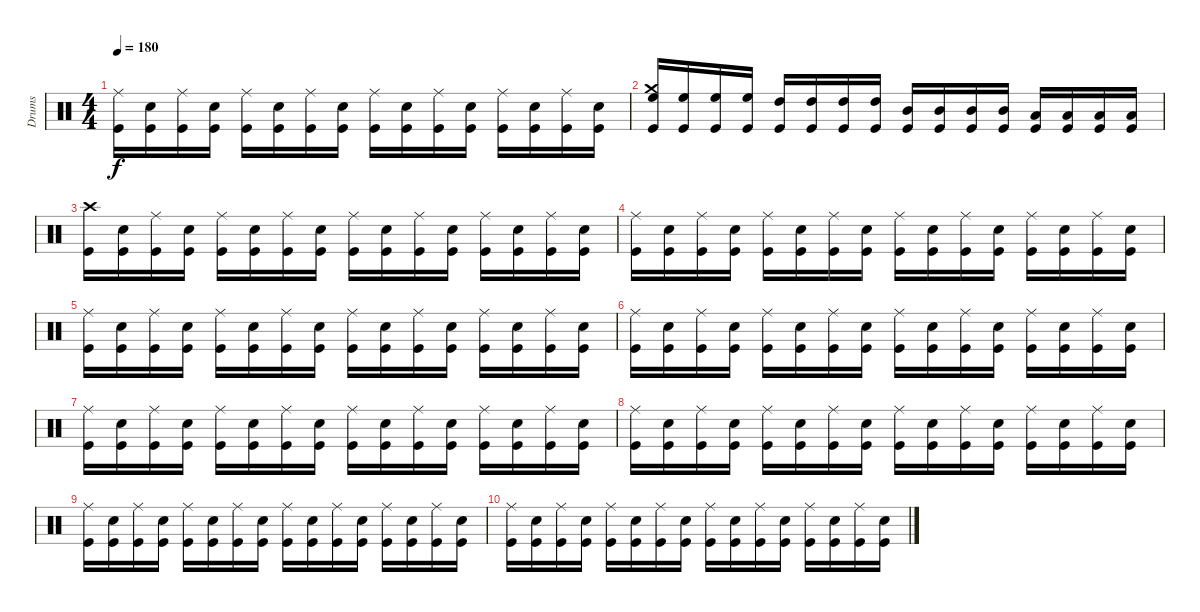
\track ("Drums" "Drums") {instrument percussion}
\staff {score}
\articulation defaults
\ts (4 4)
\tempo 180
\clef neutral
\ks c
("Ride (middle)" "Kick (hit)").16{dy f} ("Snare (hit) 2" "Kick (hit)").16 ("Ride (middle)" "Kick (hit)").16 ("Snare (hit) 2" "Kick (hit)").16 ("Ride (middle)" "Kick (hit)").16 ("Snare (hit) 2" "Kick (hit)").16 ("Ride (middle)" "Kick (hit)").16 ("Snare (hit) 2" "Kick (hit)").16 ("Ride (middle)" "Kick (hit)").16 ("Snare (hit) 2" "Kick (hit)").16 ("Ride (middle)" "Kick (hit)").16 ("Snare (hit) 2" "Kick (hit)").16 ("Ride (middle)" "Kick (hit)").16 ("Snare (hit) 2" "Kick (hit)").16 ("Ride (middle)" "Kick (hit)").16 ("Snare (hit) 2" "Kick (hit)").16 |
("Crash medium (hit)" "High Floor Tom (hit)" "Kick (hit)").16 ("High Floor Tom (hit)" "Kick (hit)").16 ("High Floor Tom (hit)" "Kick (hit)").16 ("High Floor Tom (hit)" "Kick (hit)").16 ("High Tom (hit)" "Kick (hit)").16 ("High Tom (hit)" "Kick (hit)").16 ("High Tom (hit)" "Kick (hit)").16 ("High Tom (hit)" "Kick (hit)").16 ("Mid Tom (hit)" "Kick (hit)").16 ("Mid Tom (hit)" "Kick (hit)").16 ("Mid Tom (hit)" "Kick (hit)").16 ("Mid Tom (hit)" "Kick (hit)").16 ("Low Tom (hit)" "Kick (hit)").16 ("Low Tom (hit)" "Kick (hit)").16 ("Low Tom (hit)" "Kick (hit)").16 ("Low Tom (hit)" "Kick (hit)").16 |
("Crash high (hit)" "Kick (hit)").16 ("Snare (hit) 2" "Kick (hit)").16 ("Ride (middle)" "Kick (hit)").16 ("Snare (hit) 2" "Kick (hit)").16 ("Ride (middle)" "Kick (hit)").16 ("Snare (hit) 2" "Kick (hit)").16 ("Ride (middle)" "Kick (hit)").16 ("Snare (hit) 2" "Kick (hit)").16 ("Ride (middle)" "Kick (hit)").16 ("Snare (hit) 2" "Kick (hit)").16 ("Ride (middle)" "Kick (hit)").16 ("Snare (hit) 2" "Kick (hit)").16 ("Ride (middle)" "Kick (hit)").16 ("Snare (hit) 2" "Kick (hit)").16 ("Ride (middle)" "Kick (hit)").16 ("Snare (hit) 2" "Kick (hit)").16 |
("Ride (middle)" "Kick (hit)").16 ("Snare (hit) 2" "Kick (hit)").16 ("Ride (middle)" "Kick (hit)").16 ("Snare (hit) 2" "Kick (hit)").16 ("Ride (middle)" "Kick (hit)").16 ("Snare (hit) 2" "Kick (hit)").16 ("Ride (middle)" "Kick (hit)").16 ("Snare (hit) 2" "Kick (hit)").16 ("Ride (middle)" "Kick (hit)").16 ("Snare (hit) 2" "Kick (hit)").16 ("Ride (middle)" "Kick (hit)").16 ("Snare (hit) 2" "Kick (hit)").16 ("Ride (middle)" "Kick (hit)").16 ("Snare (hit) 2" "Kick (hit)").16 ("Ride (middle)" "Kick (hit)").16 ("Snare (hit) 2" "Kick (hit)").16 |
("Ride (middle)" "Kick (hit)").16 ("Snare (hit) 2" "Kick (hit)").16 ("Ride (middle)" "Kick (hit)").16 ("Snare (hit) 2" "Kick (hit)").16 ("Ride (middle)" "Kick (hit)").16 ("Snare (hit) 2" "Kick (hit)").16 ("Ride (middle)" "Kick (hit)").16 ("Snare (hit) 2" "Kick (hit)").16 ("Ride (middle)" "Kick (hit)").16 ("Snare (hit) 2" "Kick (hit)").16 ("Ride (middle)" "Kick (hit)").16 ("Snare (hit) 2" "Kick (hit)").16 ("Ride (middle)" "Kick (hit)").16 ("Snare (hit) 2" "Kick (hit)").16 ("Ride (middle)" "Kick (hit)").16 ("Snare (hit) 2" "Kick (hit)").16 |
("Ride (middle)" "Kick (hit)").16 ("Snare (hit) 2" "Kick (hit)").16 ("Ride (middle)" "Kick (hit)").16 ("Snare (hit) 2" "Kick (hit)").16 ("Ride (middle)" "Kick (hit)").16 ("Snare (hit) 2" "Kick (hit)").16 ("Ride (middle)" "Kick (hit)").16 ("Snare (hit) 2" "Kick (hit)").16 ("Ride (middle)" "Kick (hit)").16 ("Snare (hit) 2" "Kick (hit)").16 ("Ride (middle)" "Kick (hit)").16 ("Snare (hit) 2" "Kick (hit)").16 ("Ride (middle)" "Kick (hit)").16 ("Snare (hit) 2" "Kick (hit)").16 ("Ride (middle)" "Kick (hit)").16 ("Snare (hit) 2" "Kick (hit)").16 |
("Ride (middle)" "Kick (hit)").16 ("Snare (hit) 2" "Kick (hit)").16 ("Ride (middle)" "Kick (hit)").16 ("Snare (hit) 2" "Kick (hit)").16 ("Ride (middle)" "Kick (hit)").16 ("Snare (hit) 2" "Kick (hit)").16 ("Ride (middle)" "Kick (hit)").16 ("Snare (hit) 2" "Kick (hit)").16 ("Ride (middle)" "Kick (hit)").16 ("Snare (hit) 2" "Kick (hit)").16 ("Ride (middle)" "Kick (hit)").16 ("Snare (hit) 2" "Kick (hit)").16 ("Ride (middle)" "Kick (hit)").16 ("Snare (hit) 2" "Kick (hit)").16 ("Ride (middle)" "Kick (hit)").16 ("Snare (hit) 2" "Kick (hit)").16 |
("Ride (middle)" "Kick (hit)").16 ("Snare (hit) 2" "Kick (hit)").16 ("Ride (middle)" "Kick (hit)").16 ("Snare (hit) 2" "Kick (hit)").16 ("Ride (middle)" "Kick (hit)").16 ("Snare (hit) 2" "Kick (hit)").16 ("Ride (middle)" "Kick (hit)").16 ("Snare (hit) 2" "Kick (hit)").16 ("Ride (middle)" "Kick (hit)").16 ("Snare (hit) 2" "Kick (hit)").16 ("Ride (middle)" "Kick (hit)").16 ("Snare (hit) 2" "Kick (hit)").16 ("Ride (middle)" "Kick (hit)").16 ("Snare (hit) 2" "Kick (hit)").16 ("Ride (middle)" "Kick (hit)").16 ("Snare (hit) 2" "Kick (hit)").16 |
("Ride (middle)" "Kick (hit)").16 ("Snare (hit) 2" "Kick (hit)").16 ("Ride (middle)" "Kick (hit)").16 ("Snare (hit) 2" "Kick (hit)").16 ("Ride (middle)" "Kick (hit)").16 ("Snare (hit) 2" "Kick (hit)").16 ("Ride (middle)" "Kick (hit)").16 ("Snare (hit) 2" "Kick (hit)").16 ("Ride (middle)" "Kick (hit)").16 ("Snare (hit) 2" "Kick (hit)").16 ("Ride (middle)" "Kick (hit)").16 ("Snare (hit) 2" "Kick (hit)").16 ("Ride (middle)" "Kick (hit)").16 ("Snare (hit) 2" "Kick (hit)").16 ("Ride (middle)" "Kick (hit)").16 ("Snare (hit) 2" "Kick (hit)").16 |
("Ride (middle)" "Kick (hit)").16 ("Snare (hit) 2" "Kick (hit)").16 ("Ride (middle)" "Kick (hit)").16 ("Snare (hit) 2" "Kick (hit)").16 ("Ride (middle)" "Kick (hit)").16 ("Snare (hit) 2" "Kick (hit)").16 ("Ride (middle)" "Kick (hit)").16 ("Snare (hit) 2" "Kick (hit)").16 ("Ride (middle)" "Kick (hit)").16 ("Snare (hit) 2" "Kick (hit)").16 ("Ride (middle)" "Kick (hit)").16 ("Snare (hit) 2" "Kick (hit)").16 ("Ride (middle)" "Kick (hit)").16 ("Snare (hit) 2" "Kick (hit)").16 ("Ride (middle)" "Kick (hit)").16 ("Snare (hit) 2" "Kick (hit)").16
